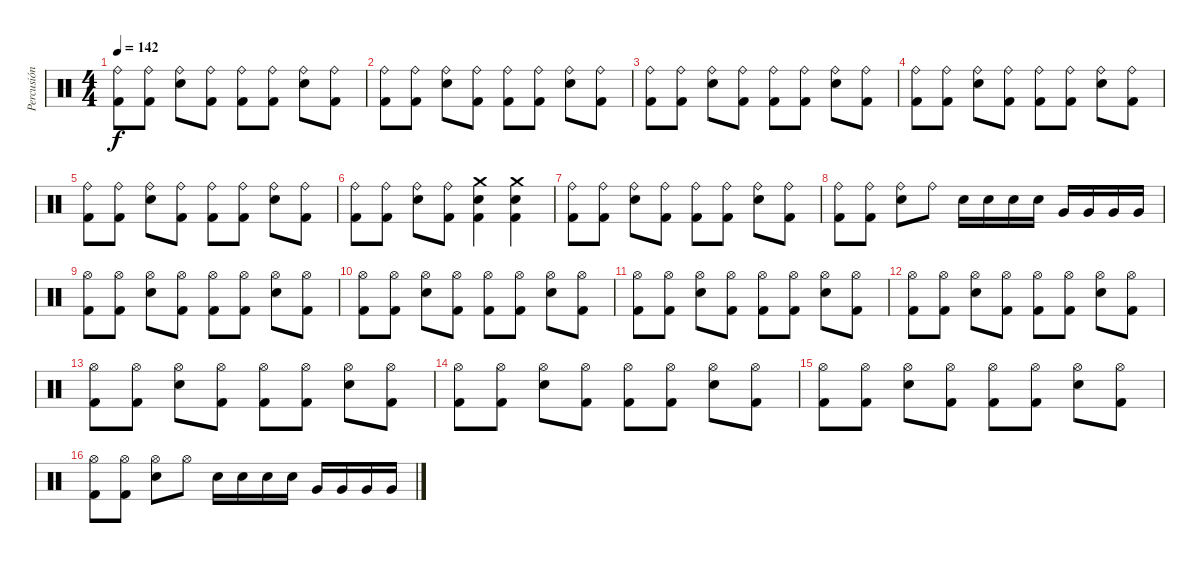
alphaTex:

\track ("Percusión" "Percusión") {instrument percussion}
\staff {score}
\articulation defaults
\ts (4 4)
\tempo 142
\clef neutral
\ks c
("Ride (bell)" "Kick (hit) 2").8{dy f} ("Ride (bell)" "Kick (hit) 2").8 ("Ride (bell)" "Electric Snare (hit)").8 ("Ride (bell)" "Kick (hit) 2").8 ("Ride (bell)" "Kick (hit) 2").8 ("Ride (bell)" "Kick (hit) 2").8 ("Ride (bell)" "Electric Snare (hit)").8 ("Ride (bell)" "Kick (hit) 2").8 |
("Ride (bell)" "Kick (hit) 2").8 ("Ride (bell)" "Kick (hit) 2").8 ("Ride (bell)" "Electric Snare (hit)").8 ("Ride (bell)" "Kick (hit) 2").8 ("Ride (bell)" "Kick (hit) 2").8 ("Ride (bell)" "Kick (hit) 2").8 ("Ride (bell)" "Electric Snare (hit)").8 ("Ride (bell)" "Kick (hit) 2").8 |
("Ride (bell)" "Kick (hit) 2").8 ("Ride (bell)" "Kick (hit) 2").8 ("Ride (bell)" "Electric Snare (hit)").8 ("Ride (bell)" "Kick (hit) 2").8 ("Ride (bell)" "Kick (hit) 2").8 ("Ride (bell)" "Kick (hit) 2").8 ("Ride (bell)" "Electric Snare (hit)").8 ("Ride (bell)" "Kick (hit) 2").8 |
("Ride (bell)" "Kick (hit) 2").8 ("Ride (bell)" "Kick (hit) 2").8 ("Ride (bell)" "Electric Snare (hit)").8 ("Ride (bell)" "Kick (hit) 2").8 ("Ride (bell)" "Kick (hit) 2").8 ("Ride (bell)" "Kick (hit) 2").8 ("Ride (bell)" "Electric Snare (hit)").8 ("Ride (bell)" "Kick (hit) 2").8 |
("Ride (bell)" "Kick (hit) 2").8 ("Ride (bell)" "Kick (hit) 2").8 ("Ride (bell)" "Electric Snare (hit)").8 ("Ride (bell)" "Kick (hit) 2").8 ("Ride (bell)" "Kick (hit) 2").8 ("Ride (bell)" "Kick (hit) 2").8 ("Ride (bell)" "Electric Snare (hit)").8 ("Ride (bell)" "Kick (hit) 2").8 |
("Ride (bell)" "Kick (hit) 2").8 ("Ride (bell)" "Kick (hit) 2").8 ("Ride (bell)" "Electric Snare (hit)").8 ("Ride (bell)" "Kick (hit) 2").8 ("Crash medium (hit)" "Electric Snare (hit)" "Kick (hit) 2").4 ("Crash medium (hit)" "Electric Snare (hit)" "Kick (hit) 2").4 |
("Ride (bell)" "Kick (hit) 2").8 ("Ride (bell)" "Kick (hit) 2").8 ("Ride (bell)" "Electric Snare (hit)").8 ("Ride (bell)" "Kick (hit) 2").8 ("Ride (bell)" "Kick (hit) 2").8 ("Ride (bell)" "Kick (hit) 2").8 ("Ride (bell)" "Electric Snare (hit)").8 ("Ride (bell)" "Kick (hit) 2").8 |
("Ride (bell)" "Kick (hit) 2").8 ("Ride (bell)" "Kick (hit) 2").8 ("Ride (bell)" "Electric Snare (hit)").8 "Ride (bell)".8 "Electric Snare (hit)".16 "Electric Snare (hit)".16 "Electric Snare (hit)".16 "Electric Snare (hit)".16 "Very Low Tom (hit)".16 "Very Low Tom (hit)".16 "Very Low Tom (hit)".16 "Very Low Tom (hit)".16 |
("Hi-Hat (open)" "Kick (hit) 2").8 ("Hi-Hat (open)" "Kick (hit) 2").8 ("Hi-Hat (open)" "Electric Snare (hit)").8 ("Hi-Hat (open)" "Kick (hit) 2").8 ("Hi-Hat (open)" "Kick (hit) 2").8 ("Hi-Hat (open)" "Kick (hit) 2").8 ("Hi-Hat (open)" "Electric Snare (hit)").8 ("Hi-Hat (open)" "Kick (hit) 2").8 |
("Hi-Hat (open)" "Kick (hit) 2").8 ("Hi-Hat (open)" "Kick (hit) 2").8 ("Hi-Hat (open)" "Electric Snare (hit)").8 ("Hi-Hat (open)" "Kick (hit) 2").8 ("Hi-Hat (open)" "Kick (hit) 2").8 ("Hi-Hat (open)" "Kick (hit) 2").8 ("Hi-Hat (open)" "Electric Snare (hit)").8 ("Hi-Hat (open)" "Kick (hit) 2").8 |
("Hi-Hat (open)" "Kick (hit) 2").8 ("Hi-Hat (open)" "Kick (hit) 2").8 ("Hi-Hat (open)" "Electric Snare (hit)").8 ("Hi-Hat (open)" "Kick (hit) 2").8 ("Hi-Hat (open)" "Kick (hit) 2").8 ("Hi-Hat (open)" "Kick (hit) 2").8 ("Hi-Hat (open)" "Electric Snare (hit)").8 ("Hi-Hat (open)" "Kick (hit) 2").8 |
("Hi-Hat (open)" "Kick (hit) 2").8 ("Hi-Hat (open)" "Kick (hit) 2").8 ("Hi-Hat (open)" "Electric Snare (hit)").8 ("Hi-Hat (open)" "Kick (hit) 2").8 ("Hi-Hat (open)" "Kick (hit) 2").8 ("Hi-Hat (open)" "Kick (hit) 2").8 ("Hi-Hat (open)" "Electric Snare (hit)").8 ("Hi-Hat (open)" "Kick (hit) 2").8 |
("Hi-Hat (open)" "Kick (hit) 2").8 ("Hi-Hat (open)" "Kick (hit) 2").8 ("Hi-Hat (open)" "Electric Snare (hit)").8 ("Hi-Hat (open)" "Kick (hit) 2").8 ("Hi-Hat (open)" "Kick (hit) 2").8 ("Hi-Hat (open)" "Kick (hit) 2").8 ("Hi-Hat (open)" "Electric Snare (hit)").8 ("Hi-Hat (open)" "Kick (hit) 2").8 |
("Hi-Hat (open)" "Kick (hit) 2").8 ("Hi-Hat (open)" "Kick (hit) 2").8 ("Hi-Hat (open)" "Electric Snare (hit)").8 ("Hi-Hat (open)" "Kick (hit) 2").8 ("Hi-Hat (open)" "Kick (hit) 2").8 ("Hi-Hat (open)" "Kick (hit) 2").8 ("Hi-Hat (open)" "Electric Snare (hit)").8 ("Hi-Hat (open)" "Kick (hit) 2").8 |
("Hi-Hat (open)" "Kick (hit) 2").8 ("Hi-Hat (open)" "Kick (hit) 2").8 ("Hi-Hat (open)" "Electric Snare (hit)").8 ("Hi-Hat (open)" "Kick (hit) 2").8 ("Hi-Hat (open)" "Kick (hit) 2").8 ("Hi-Hat (open)" "Kick (hit) 2").8 ("Hi-Hat (open)" "Electric Snare (hit)").8 ("Hi-Hat (open)" "Kick (hit) 2").8 |
("Hi-Hat (open)" "Kick (hit) 2").8 ("Hi-Hat (open)" "Kick (hit) 2").8 ("Hi-Hat (open)" "Electric Snare (hit)").8 "Hi-Hat (open)".8 "Electric Snare (hit)".16 "Electric Snare (hit)".16 "Electric Snare (hit)".16 "Electric Snare (hit)".16 "Very Low Tom (hit)".16 "Very Low Tom (hit)".16 "Very Low Tom (hit)".16 "Very Low Tom (hit)".16
